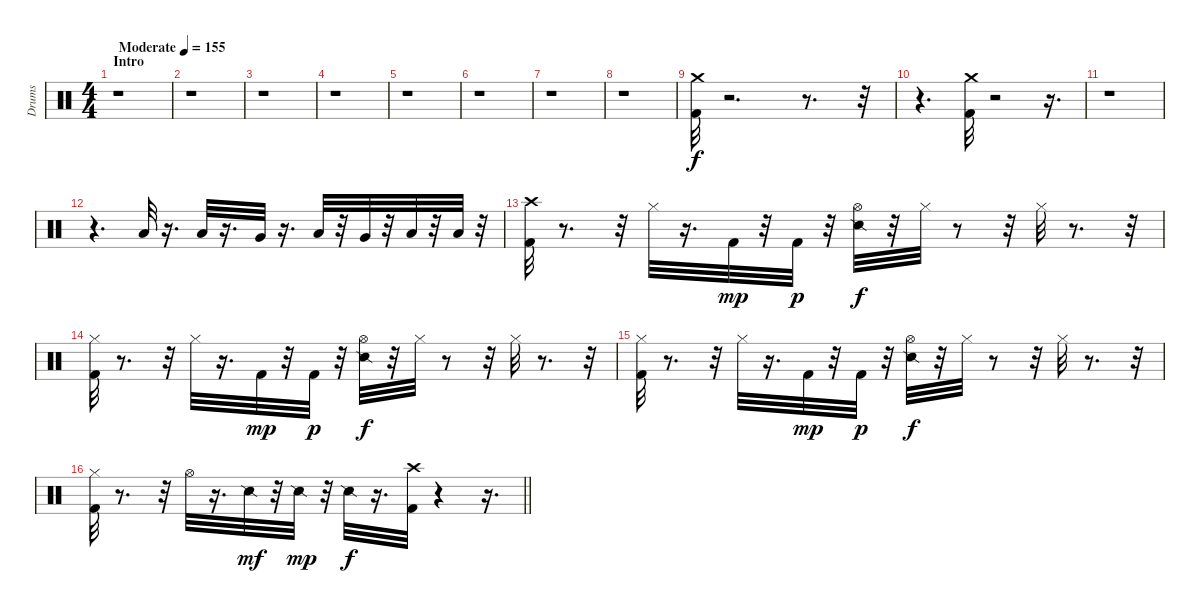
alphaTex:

\track ("Drums" "Drums") {instrument percussion}
\staff {score}
\articulation defaults
\ts (4 4)
\section ("" "Intro")
\tempo (155 "Moderate")
\clef neutral
\ks c
r.1{dy f} |
r.1 |
r.1 |
r.1 |
r.1 |
r.1 |
r.1 |
r.1 |
("Kick (hit) 2" "Crash medium (hit)").32 r.2{d} r.8{d} r.32 |
r.4{d} ("Kick (hit) 2" "Crash medium (hit)").32 r.2 r.16{d} |
r.1 |
r.4{d} "Low Tom (hit)".32 r.16{d} "Low Tom (hit)".32 r.16{d} "Very Low Tom (hit)".32 r.16{d} "Low Tom (hit)".32 r.32 "Very Low Tom (hit)".32 r.32 "Low Floor Tom (hit)".32 r.32 "Low Floor Tom (hit)".32 r.32 |
("Crash high (hit)" "Kick (hit) 2").32 r.8{d} r.32 "Hi-Hat (closed)".32 r.16{d} "Kick (hit) 2".32{dy mp} r.32 "Kick (hit) 2".32{dy p} r.32 ("Hi-Hat (open)" "Snare (side stick) 2").32{dy f} r.32 "Hi-Hat (closed)".32 r.8 r.32 "Hi-Hat (closed)".32 r.8{d} r.32 |
("Hi-Hat (closed)" "Kick (hit) 2").32 r.8{d} r.32 "Hi-Hat (closed)".32 r.16{d} "Kick (hit) 2".32{dy mp} r.32 "Kick (hit) 2".32{dy p} r.32 ("Hi-Hat (open)" "Snare (side stick) 2").32{dy f} r.32 "Hi-Hat (closed)".32 r.8 r.32 "Hi-Hat (closed)".32 r.8{d} r.32 |
("Hi-Hat (closed)" "Kick (hit) 2").32 r.8{d} r.32 "Hi-Hat (closed)".32 r.16{d} "Kick (hit) 2".32{dy mp} r.32 "Kick (hit) 2".32{dy p} r.32 ("Hi-Hat (open)" "Snare (side stick) 2").32{dy f} r.32 "Hi-Hat (closed)".32 r.8 r.32 "Hi-Hat (closed)".32 r.8{d} r.32 |
\barLineRight lightlight
("Kick (hit) 2" "Hi-Hat (closed)").32 r.8{d} r.32 "Hi-Hat (open)".32 r.16{d} "Snare (side stick) 2".32{dy mf} r.32 "Snare (side stick) 2".32{dy mp} r.32 "Snare (side stick) 2".32{dy f} r.16{d} ("Crash high (hit)" "Kick (hit) 2").32 r.4 r.16{d}
